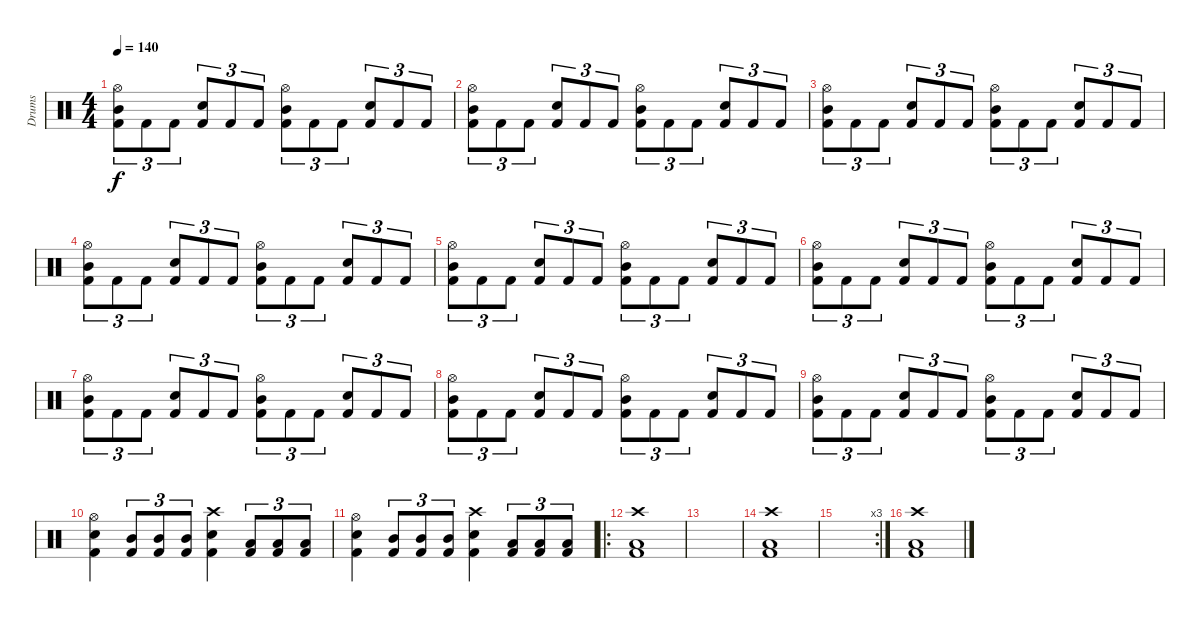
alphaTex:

\track ("Drums" "Drums") {instrument percussion}
\staff {score}
\articulation defaults
\ts (4 4)
\tempo 140
\clef neutral
\ks c
("Hi-Hat (open)" "Mid Tom (hit)" "Kick (hit) 2").8{tu (3 2) dy f} "Kick (hit) 2".8{tu (3 2)} "Kick (hit) 2".8{tu (3 2)} ("Electric Snare (hit)" "Kick (hit) 2").8{tu (3 2)} "Kick (hit) 2".8{tu (3 2)} "Kick (hit) 2".8{tu (3 2)} ("Hi-Hat (open)" "Mid Tom (hit)" "Kick (hit) 2").8{tu (3 2)} "Kick (hit) 2".8{tu (3 2)} "Kick (hit) 2".8{tu (3 2)} ("Electric Snare (hit)" "Kick (hit) 2").8{tu (3 2)} "Kick (hit) 2".8{tu (3 2)} "Kick (hit) 2".8{tu (3 2)} |
("Hi-Hat (open)" "Mid Tom (hit)" "Kick (hit) 2").8{tu (3 2)} "Kick (hit) 2".8{tu (3 2)} "Kick (hit) 2".8{tu (3 2)} ("Electric Snare (hit)" "Kick (hit) 2").8{tu (3 2)} "Kick (hit) 2".8{tu (3 2)} "Kick (hit) 2".8{tu (3 2)} ("Hi-Hat (open)" "Mid Tom (hit)" "Kick (hit) 2").8{tu (3 2)} "Kick (hit) 2".8{tu (3 2)} "Kick (hit) 2".8{tu (3 2)} ("Electric Snare (hit)" "Kick (hit) 2").8{tu (3 2)} "Kick (hit) 2".8{tu (3 2)} "Kick (hit) 2".8{tu (3 2)} |
("Hi-Hat (open)" "Mid Tom (hit)" "Kick (hit) 2").8{tu (3 2)} "Kick (hit) 2".8{tu (3 2)} "Kick (hit) 2".8{tu (3 2)} ("Electric Snare (hit)" "Kick (hit) 2").8{tu (3 2)} "Kick (hit) 2".8{tu (3 2)} "Kick (hit) 2".8{tu (3 2)} ("Hi-Hat (open)" "Mid Tom (hit)" "Kick (hit) 2").8{tu (3 2)} "Kick (hit) 2".8{tu (3 2)} "Kick (hit) 2".8{tu (3 2)} ("Electric Snare (hit)" "Kick (hit) 2").8{tu (3 2)} "Kick (hit) 2".8{tu (3 2)} "Kick (hit) 2".8{tu (3 2)} |
("Hi-Hat (open)" "Mid Tom (hit)" "Kick (hit) 2").8{tu (3 2)} "Kick (hit) 2".8{tu (3 2)} "Kick (hit) 2".8{tu (3 2)} ("Electric Snare (hit)" "Kick (hit) 2").8{tu (3 2)} "Kick (hit) 2".8{tu (3 2)} "Kick (hit) 2".8{tu (3 2)} ("Hi-Hat (open)" "Mid Tom (hit)" "Kick (hit) 2").8{tu (3 2)} "Kick (hit) 2".8{tu (3 2)} "Kick (hit) 2".8{tu (3 2)} ("Electric Snare (hit)" "Kick (hit) 2").8{tu (3 2)} "Kick (hit) 2".8{tu (3 2)} "Kick (hit) 2".8{tu (3 2)} |
("Hi-Hat (open)" "Mid Tom (hit)" "Kick (hit) 2").8{tu (3 2)} "Kick (hit) 2".8{tu (3 2)} "Kick (hit) 2".8{tu (3 2)} ("Electric Snare (hit)" "Kick (hit) 2").8{tu (3 2)} "Kick (hit) 2".8{tu (3 2)} "Kick (hit) 2".8{tu (3 2)} ("Hi-Hat (open)" "Mid Tom (hit)" "Kick (hit) 2").8{tu (3 2)} "Kick (hit) 2".8{tu (3 2)} "Kick (hit) 2".8{tu (3 2)} ("Electric Snare (hit)" "Kick (hit) 2").8{tu (3 2)} "Kick (hit) 2".8{tu (3 2)} "Kick (hit) 2".8{tu (3 2)} |
("Hi-Hat (open)" "Mid Tom (hit)" "Kick (hit) 2").8{tu (3 2)} "Kick (hit) 2".8{tu (3 2)} "Kick (hit) 2".8{tu (3 2)} ("Electric Snare (hit)" "Kick (hit) 2").8{tu (3 2)} "Kick (hit) 2".8{tu (3 2)} "Kick (hit) 2".8{tu (3 2)} ("Hi-Hat (open)" "Mid Tom (hit)" "Kick (hit) 2").8{tu (3 2)} "Kick (hit) 2".8{tu (3 2)} "Kick (hit) 2".8{tu (3 2)} ("Electric Snare (hit)" "Kick (hit) 2").8{tu (3 2)} "Kick (hit) 2".8{tu (3 2)} "Kick (hit) 2".8{tu (3 2)} |
("Hi-Hat (open)" "Mid Tom (hit)" "Kick (hit) 2").8{tu (3 2)} "Kick (hit) 2".8{tu (3 2)} "Kick (hit) 2".8{tu (3 2)} ("Electric Snare (hit)" "Kick (hit) 2").8{tu (3 2)} "Kick (hit) 2".8{tu (3 2)} "Kick (hit) 2".8{tu (3 2)} ("Hi-Hat (open)" "Mid Tom (hit)" "Kick (hit) 2").8{tu (3 2)} "Kick (hit) 2".8{tu (3 2)} "Kick (hit) 2".8{tu (3 2)} ("Electric Snare (hit)" "Kick (hit) 2").8{tu (3 2)} "Kick (hit) 2".8{tu (3 2)} "Kick (hit) 2".8{tu (3 2)} |
("Hi-Hat (open)" "Mid Tom (hit)" "Kick (hit) 2").8{tu (3 2)} "Kick (hit) 2".8{tu (3 2)} "Kick (hit) 2".8{tu (3 2)} ("Electric Snare (hit)" "Kick (hit) 2").8{tu (3 2)} "Kick (hit) 2".8{tu (3 2)} "Kick (hit) 2".8{tu (3 2)} ("Hi-Hat (open)" "Mid Tom (hit)" "Kick (hit) 2").8{tu (3 2)} "Kick (hit) 2".8{tu (3 2)} "Kick (hit) 2".8{tu (3 2)} ("Electric Snare (hit)" "Kick (hit) 2").8{tu (3 2)} "Kick (hit) 2".8{tu (3 2)} "Kick (hit) 2".8{tu (3 2)} |
("Hi-Hat (open)" "Mid Tom (hit)" "Kick (hit) 2").8{tu (3 2)} "Kick (hit) 2".8{tu (3 2)} "Kick (hit) 2".8{tu (3 2)} ("Electric Snare (hit)" "Kick (hit) 2").8{tu (3 2)} "Kick (hit) 2".8{tu (3 2)} "Kick (hit) 2".8{tu (3 2)} ("Hi-Hat (open)" "Mid Tom (hit)" "Kick (hit) 2").8{tu (3 2)} "Kick (hit) 2".8{tu (3 2)} "Kick (hit) 2".8{tu (3 2)} ("Electric Snare (hit)" "Kick (hit) 2").8{tu (3 2)} "Kick (hit) 2".8{tu (3 2)} "Kick (hit) 2".8{tu (3 2)} |
("Hi-Hat (open)" "Electric Snare (hit)" "Kick (hit) 2").4 ("Kick (hit) 2" "Mid Tom (hit)").8{tu (3 2)} ("Kick (hit) 2" "Mid Tom (hit)").8{tu (3 2)} ("Kick (hit) 2" "Mid Tom (hit)").8{tu (3 2)} ("Crash high (hit)" "Electric Snare (hit)" "Kick (hit) 2").4 ("Kick (hit) 2" "Low Tom (hit)").8{tu (3 2)} ("Kick (hit) 2" "Low Tom (hit)").8{tu (3 2)} ("Kick (hit) 2" "Low Tom (hit)").8{tu (3 2)} |
("Hi-Hat (open)" "Electric Snare (hit)" "Kick (hit) 2").4 ("Kick (hit) 2" "Mid Tom (hit)").8{tu (3 2)} ("Kick (hit) 2" "Mid Tom (hit)").8{tu (3 2)} ("Kick (hit) 2" "Mid Tom (hit)").8{tu (3 2)} ("Crash high (hit)" "Electric Snare (hit)" "Kick (hit) 2").4 ("Kick (hit) 2" "Low Tom (hit)").8{tu (3 2)} ("Kick (hit) 2" "Low Tom (hit)").8{tu (3 2)} ("Kick (hit) 2" "Low Tom (hit)").8{tu (3 2)} |
\ro
("Crash high (hit)" "Low Tom (hit)" "Kick (hit) 2").1 |
|
("Crash high (hit)" "Low Tom (hit)" "Kick (hit) 2").1 |
\rc 3
|
("Crash high (hit)" "Low Tom (hit)" "Kick (hit) 2").1
